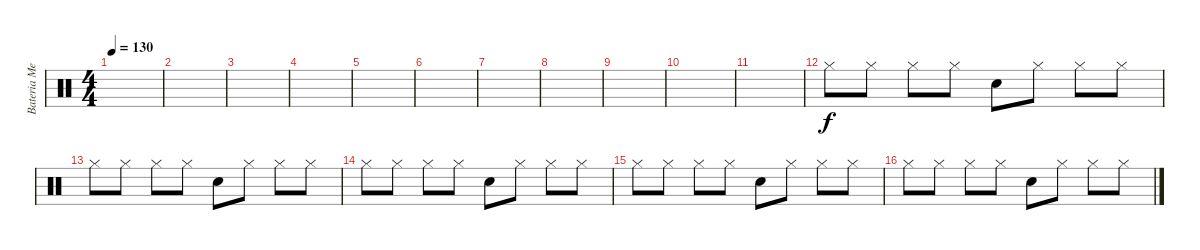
\track ("Bateria Men" "Bateria Me") {instrument percussion}
\staff {score}
\articulation defaults
\ts (4 4)
\tempo 130
\clef neutral
\ks c
|
|
|
|
|
|
|
|
|
|
|
"Hi-Hat (closed)".8 "Hi-Hat (closed)".8 "Hi-Hat (closed)".8 "Hi-Hat (closed)".8 "Electric Snare (hit)".8 "Hi-Hat (closed)".8 "Hi-Hat (closed)".8 "Hi-Hat (closed)".8 |
"Hi-Hat (closed)".8 "Hi-Hat (closed)".8 "Hi-Hat (closed)".8 "Hi-Hat (closed)".8 "Electric Snare (hit)".8 "Hi-Hat (closed)".8 "Hi-Hat (closed)".8 "Hi-Hat (closed)".8 |
"Hi-Hat (closed)".8 "Hi-Hat (closed)".8 "Hi-Hat (closed)".8 "Hi-Hat (closed)".8 "Electric Snare (hit)".8 "Hi-Hat (closed)".8 "Hi-Hat (closed)".8 "Hi-Hat (closed)".8 |
"Hi-Hat (closed)".8 "Hi-Hat (closed)".8 "Hi-Hat (closed)".8 "Hi-Hat (closed)".8 "Electric Snare (hit)".8 "Hi-Hat (closed)".8 "Hi-Hat (closed)".8 "Hi-Hat (closed)".8 |
"Hi-Hat (closed)".8 "Hi-Hat (closed)".8 "Hi-Hat (closed)".8 "Hi-Hat (closed)".8 "Electric Snare (hit)".8 "Hi-Hat (closed)".8 "Hi-Hat (closed)".8 "Hi-Hat (closed)".8
